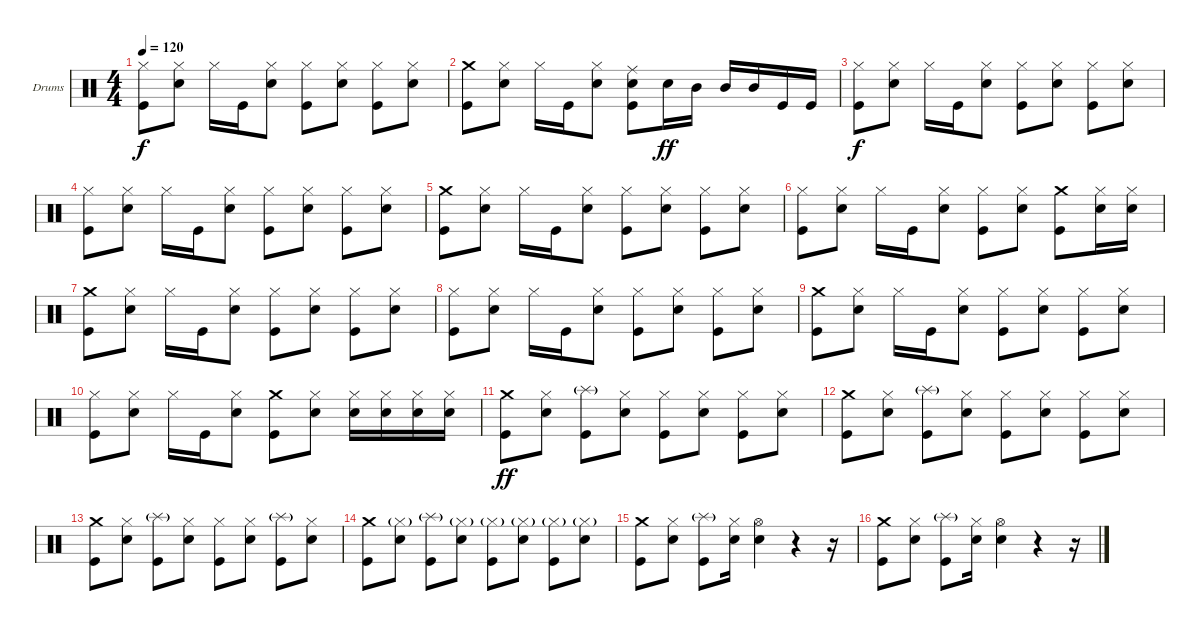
\defaultSystemsLayout 4
\bracketExtendMode groupsimilarinstruments
\firstSystemTrackNameOrientation horizontal
\otherSystemsTrackNameOrientation horizontal
\track ("Drumkit" "Drums") {instrument percussion}
\staff {score}
\articulation defaults
\ts (4 4)
\tempo 120
\clef neutral
\scale
0.333333
\ks c
("Kick (hit)" "Hi-Hat (closed)").8{dy f} ("Snare (hit) 2" "Hi-Hat (closed)").8 "Hi-Hat (closed)".16 "Kick (hit)".16 ("Snare (hit) 2" "Hi-Hat (closed)").8 ("Kick (hit)" "Hi-Hat (closed)").8 ("Snare (hit) 2" "Hi-Hat (closed)").8 ("Kick (hit)" "Hi-Hat (closed)").8 ("Snare (hit) 2" "Hi-Hat (closed)").8 |
\scale
0.333333 ("Kick (hit)" "Crash medium (hit)").8 ("Snare (hit) 2" "Hi-Hat (closed)").8 "Hi-Hat (closed)".16 "Kick (hit)".16 ("Snare (hit) 2" "Hi-Hat (closed)").8 ("Kick (hit)" "Ride (middle)" "Snare (hit) 2").8 "Snare (hit) 2".16{dy ff} "Mid Tom (hit)".16 "Mid Tom (hit)".16 "Mid Tom (hit)".16 "Kick (hit)".16 "Kick (hit)".16 |
\scale
0.333333 ("Kick (hit)" "Hi-Hat (closed)").8{dy f} ("Snare (hit) 2" "Hi-Hat (closed)").8 "Hi-Hat (closed)".16 "Kick (hit)".16 ("Snare (hit) 2" "Hi-Hat (closed)").8 ("Kick (hit)" "Hi-Hat (closed)").8 ("Snare (hit) 2" "Hi-Hat (closed)").8 ("Kick (hit)" "Hi-Hat (closed)").8 ("Snare (hit) 2" "Hi-Hat (closed)").8 |
\scale
0.333333 ("Kick (hit)" "Hi-Hat (closed)").8 ("Snare (hit) 2" "Hi-Hat (closed)").8 "Hi-Hat (closed)".16 "Kick (hit)".16 ("Snare (hit) 2" "Hi-Hat (closed)").8 ("Kick (hit)" "Hi-Hat (closed)").8 ("Snare (hit) 2" "Hi-Hat (closed)").8 ("Kick (hit)" "Hi-Hat (closed)").8 ("Snare (hit) 2" "Hi-Hat (closed)").8 |
\scale
0.333333 ("Kick (hit)" "Crash medium (hit)").8 ("Snare (hit) 2" "Hi-Hat (closed)").8 "Hi-Hat (closed)".16 "Kick (hit)".16 ("Snare (hit) 2" "Hi-Hat (closed)").8 ("Kick (hit)" "Hi-Hat (closed)").8 ("Snare (hit) 2" "Hi-Hat (closed)").8 ("Kick (hit)" "Hi-Hat (closed)").8 ("Snare (hit) 2" "Hi-Hat (closed)").8 |
\scale
0.333333 ("Kick (hit)" "Hi-Hat (closed)").8 ("Snare (hit) 2" "Hi-Hat (closed)").8 "Hi-Hat (closed)".16 "Kick (hit)".16 ("Snare (hit) 2" "Hi-Hat (closed)").8 ("Kick (hit)" "Hi-Hat (closed)").8 ("Snare (hit) 2" "Hi-Hat (closed)").8 ("Kick (hit)" "Crash medium (hit)").8 ("Snare (hit) 2" "Hi-Hat (closed)").16 ("Snare (hit) 2" "Hi-Hat (closed)").16 |
\scale
0.333333 ("Kick (hit)" "Crash medium (hit)").8 ("Snare (hit) 2" "Hi-Hat (closed)").8 "Hi-Hat (closed)".16 "Kick (hit)".16 ("Snare (hit) 2" "Hi-Hat (closed)").8 ("Kick (hit)" "Hi-Hat (closed)").8 ("Snare (hit) 2" "Hi-Hat (closed)").8 ("Kick (hit)" "Hi-Hat (closed)").8 ("Snare (hit) 2" "Hi-Hat (closed)").8 |
\scale
0.333333 ("Kick (hit)" "Hi-Hat (closed)").8 ("Snare (hit) 2" "Hi-Hat (closed)").8 "Hi-Hat (closed)".16 "Kick (hit)".16 ("Snare (hit) 2" "Hi-Hat (closed)").8 ("Kick (hit)" "Hi-Hat (closed)").8 ("Snare (hit) 2" "Hi-Hat (closed)").8 ("Kick (hit)" "Hi-Hat (closed)").8 ("Snare (hit) 2" "Hi-Hat (closed)").8 |
\scale
0.333333 ("Kick (hit)" "Crash medium (hit)").8 ("Snare (hit) 2" "Hi-Hat (closed)").8 "Hi-Hat (closed)".16 "Kick (hit)".16 ("Snare (hit) 2" "Hi-Hat (closed)").8 ("Kick (hit)" "Hi-Hat (closed)").8 ("Snare (hit) 2" "Hi-Hat (closed)").8 ("Kick (hit)" "Hi-Hat (closed)").8 ("Snare (hit) 2" "Hi-Hat (closed)").8 |
\scale
0.333333 ("Kick (hit)" "Hi-Hat (closed)").8 ("Snare (hit) 2" "Hi-Hat (closed)").8 "Hi-Hat (closed)".16 "Kick (hit)".16 ("Snare (hit) 2" "Hi-Hat (closed)").8 ("Kick (hit)" "Crash medium (hit)").8 ("Snare (hit) 2" "Hi-Hat (closed)").8 ("Snare (hit) 2" "Hi-Hat (closed)").16 ("Snare (hit) 2" "Hi-Hat (closed)").16 ("Snare (hit) 2" "Hi-Hat (closed)").16 ("Snare (hit) 2" "Hi-Hat (closed)").16 |
\scale
0.333333 ("Kick (hit)" "Crash medium (hit)").8{dy ff} ("Snare (hit) 2" "Hi-Hat (closed)").8 ("Kick (hit)" "Splash (hit)"{g}).8 ("Snare (hit) 2" "Hi-Hat (closed)").8 ("Kick (hit)" "Hi-Hat (closed)").8 ("Snare (hit) 2" "Hi-Hat (closed)").8 ("Kick (hit)" "Hi-Hat (closed)").8 ("Snare (hit) 2" "Hi-Hat (closed)").8 |
\scale
0.333333 ("Kick (hit)" "Crash medium (hit)").8 ("Snare (hit) 2" "Hi-Hat (closed)").8 ("Kick (hit)" "Splash (hit)"{g}).8 ("Snare (hit) 2" "Hi-Hat (closed)").8 ("Kick (hit)" "Hi-Hat (closed)").8 ("Snare (hit) 2" "Hi-Hat (closed)").8 ("Kick (hit)" "Hi-Hat (closed)").8 ("Snare (hit) 2" "Hi-Hat (closed)").8 |
\scale
0.333333 ("Kick (hit)" "Crash medium (hit)").8 ("Snare (hit) 2" "Hi-Hat (closed)").8 ("Kick (hit)" "Splash (hit)"{g}).8 ("Snare (hit) 2" "Hi-Hat (closed)").8 ("Kick (hit)" "Hi-Hat (closed)").8 ("Snare (hit) 2" "Hi-Hat (closed)").8 ("Kick (hit)" "Splash (hit)"{g}).8 ("Snare (hit) 2" "Hi-Hat (closed)").8 |
\scale
0.333333 ("Kick (hit)" "Crash medium (hit)").8 ("Snare (hit) 2" "Hi-Hat (closed)"{g}).8 ("Kick (hit)" "Splash (hit)"{g}).8 ("Snare (hit) 2" "Hi-Hat (closed)"{g}).8 ("Kick (hit)" "Hi-Hat (closed)"{g}).8 ("Snare (hit) 2" "Hi-Hat (closed)"{g}).8 ("Kick (hit)" "Hi-Hat (closed)"{g}).8 ("Snare (hit) 2" "Hi-Hat (closed)"{g}).8 |
\scale
0.333333 ("Kick (hit)" "Crash medium (hit)").8 ("Snare (hit) 2" "Hi-Hat (closed)").8 ("Kick (hit)" "Splash (hit)"{g}).8 ("Snare (hit) 2" "Hi-Hat (closed)").16 ("Snare (hit) 2" "Hi-Hat (open)").4 r.4 r.16 |
\scale
0.333333 ("Kick (hit)" "Crash medium (hit)").8 ("Snare (hit) 2" "Hi-Hat (closed)").8 ("Kick (hit)" "Splash (hit)"{g}).8 ("Snare (hit) 2" "Hi-Hat (closed)").16 ("Snare (hit) 2" "Hi-Hat (open)").4 r.4 r.16
